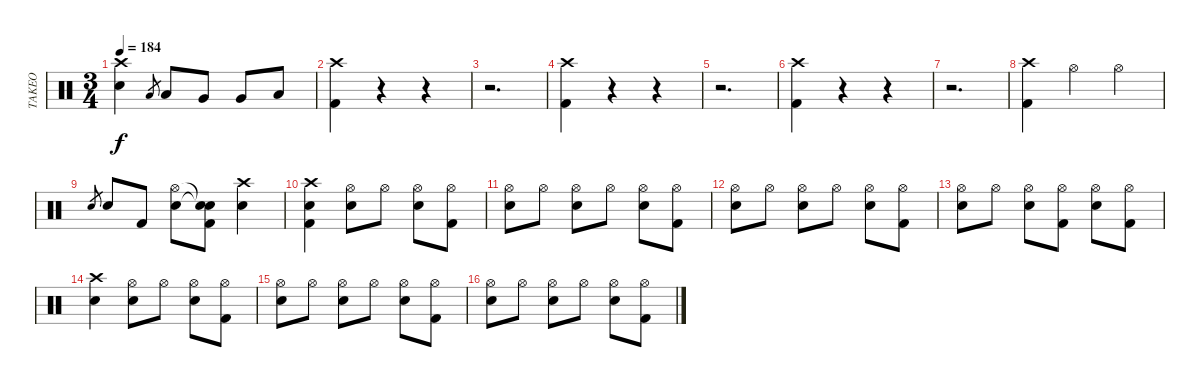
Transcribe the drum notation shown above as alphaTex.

\track ("TAKEO" "TAKEO") {instrument percussion}
\staff {score}
\articulation defaults
\ts (3 4)
\tempo 184
\clef neutral
\ks c
("Crash high (hit)" "Electric Snare (hit)").4{dy f} "Low Tom (hit)".8{gr} "Low Tom (hit)".8 "Very Low Tom (hit)".8 "Very Low Tom (hit)".8 "Low Floor Tom (hit)".8 |
("Crash high (hit)" "Kick (hit) 2").4 r.4 r.4 |
r.2{d} |
("Crash high (hit)" "Kick (hit) 2").4 r.4 r.4 |
r.2{d} |
("Crash high (hit)" "Kick (hit) 2").4 r.4 r.4 |
r.2{d} |
("Crash high (hit)" "Kick (hit) 2").4 "Hi-Hat (open)".4 "Hi-Hat (open)".4 |
"Electric Snare (hit)".8{gr} "Electric Snare (hit)".8 "Kick (hit) 2".8 ("Hi-Hat (open)" "Electric Snare (hit)").8 ("Snare (hit)"{t} "Snare (hit)"{t} "Kick (hit) 2").8 ("Crash high (hit)" "Electric Snare (hit)").4 |
("Crash high (hit)" "Electric Snare (hit)" "Kick (hit) 2").4 ("Hi-Hat (open)" "Electric Snare (hit)").8 "Hi-Hat (open)".8 ("Hi-Hat (open)" "Electric Snare (hit)").8 ("Hi-Hat (open)" "Kick (hit) 2").8 |
("Hi-Hat (open)" "Electric Snare (hit)").8 "Hi-Hat (open)".8 ("Hi-Hat (open)" "Electric Snare (hit)").8 "Hi-Hat (open)".8 ("Hi-Hat (open)" "Electric Snare (hit)").8 ("Hi-Hat (open)" "Kick (hit) 2").8 |
("Hi-Hat (open)" "Electric Snare (hit)").8 "Hi-Hat (open)".8 ("Hi-Hat (open)" "Electric Snare (hit)").8 "Hi-Hat (open)".8 ("Hi-Hat (open)" "Electric Snare (hit)").8 ("Hi-Hat (open)" "Kick (hit) 2").8 |
("Hi-Hat (open)" "Electric Snare (hit)").8 "Hi-Hat (open)".8 ("Hi-Hat (open)" "Electric Snare (hit)").8 ("Hi-Hat (open)" "Kick (hit) 2").8 ("Hi-Hat (open)" "Electric Snare (hit)").8 ("Hi-Hat (open)" "Kick (hit) 2").8 |
("Crash high (hit)" "Electric Snare (hit)").4 ("Hi-Hat (open)" "Electric Snare (hit)").8 "Hi-Hat (open)".8 ("Hi-Hat (open)" "Electric Snare (hit)").8 ("Hi-Hat (open)" "Kick (hit) 2").8 |
("Hi-Hat (open)" "Electric Snare (hit)").8 "Hi-Hat (open)".8 ("Hi-Hat (open)" "Electric Snare (hit)").8 "Hi-Hat (open)".8 ("Hi-Hat (open)" "Electric Snare (hit)").8 ("Hi-Hat (open)" "Kick (hit) 2").8 |
("Hi-Hat (open)" "Electric Snare (hit)").8 "Hi-Hat (open)".8 ("Hi-Hat (open)" "Electric Snare (hit)").8 "Hi-Hat (open)".8 ("Hi-Hat (open)" "Electric Snare (hit)").8 ("Hi-Hat (open)" "Kick (hit) 2").8
